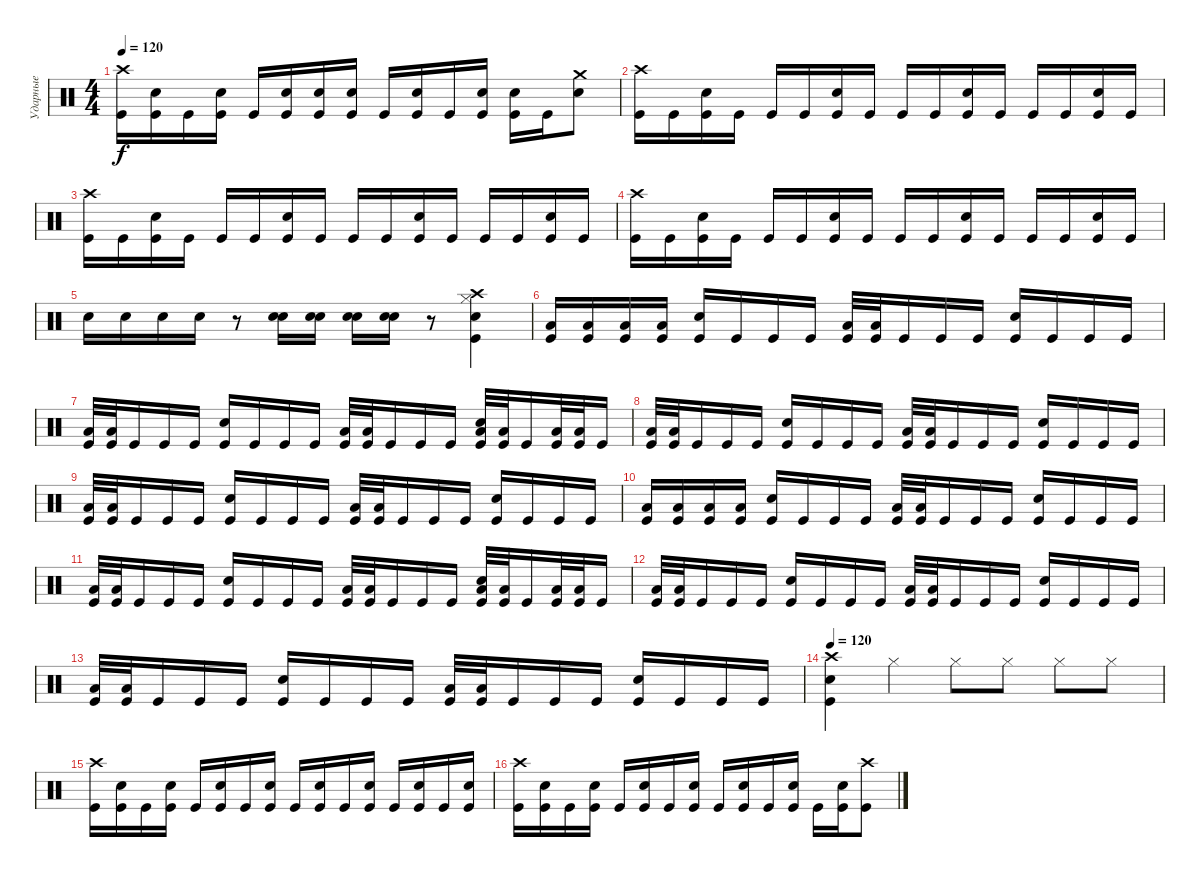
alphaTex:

\track ("Ударные" "Ударные") {instrument percussion}
\staff {score}
\articulation defaults
\ts (4 4)
\tempo 120
\clef neutral
\ks c
("Crash high (hit)" "Kick (hit)").16{dy f} ("Electric Snare (hit)" "Kick (hit)").16 "Kick (hit)".16 ("Electric Snare (hit)" "Kick (hit)").16 "Kick (hit)".16 ("Electric Snare (hit)" "Kick (hit)").16 ("Electric Snare (hit)" "Kick (hit)").16 ("Electric Snare (hit)" "Kick (hit)").16 "Kick (hit)".16 ("Electric Snare (hit)" "Kick (hit)").16 "Kick (hit)".16 ("Electric Snare (hit)" "Kick (hit)").16 ("Electric Snare (hit)" "Kick (hit)").16 "Kick (hit)".16 ("Crash medium (hit)" "Electric Snare (hit)").8 |
("Crash high (hit)" "Kick (hit)").16 "Kick (hit)".16 ("Electric Snare (hit)" "Kick (hit)").16 "Kick (hit)".16 "Kick (hit)".16 "Kick (hit)".16 ("Electric Snare (hit)" "Kick (hit)").16 "Kick (hit)".16 "Kick (hit)".16 "Kick (hit)".16 ("Electric Snare (hit)" "Kick (hit)").16 "Kick (hit)".16 "Kick (hit)".16 "Kick (hit)".16 ("Electric Snare (hit)" "Kick (hit)").16 "Kick (hit)".16 |
("Crash high (hit)" "Kick (hit)").16 "Kick (hit)".16 ("Electric Snare (hit)" "Kick (hit)").16 "Kick (hit)".16 "Kick (hit)".16 "Kick (hit)".16 ("Electric Snare (hit)" "Kick (hit)").16 "Kick (hit)".16 "Kick (hit)".16 "Kick (hit)".16 ("Electric Snare (hit)" "Kick (hit)").16 "Kick (hit)".16 "Kick (hit)".16 "Kick (hit)".16 ("Electric Snare (hit)" "Kick (hit)").16 "Kick (hit)".16 |
("Crash high (hit)" "Kick (hit)").16 "Kick (hit)".16 ("Electric Snare (hit)" "Kick (hit)").16 "Kick (hit)".16 "Kick (hit)".16 "Kick (hit)".16 ("Electric Snare (hit)" "Kick (hit)").16 "Kick (hit)".16 "Kick (hit)".16 "Kick (hit)".16 ("Electric Snare (hit)" "Kick (hit)").16 "Kick (hit)".16 "Kick (hit)".16 "Kick (hit)".16 ("Electric Snare (hit)" "Kick (hit)").16 "Kick (hit)".16 |
"Electric Snare (hit)".16 "Electric Snare (hit)".16 "Electric Snare (hit)".16 "Electric Snare (hit)".16 r.8 ("Electric Snare (hit)" "Electric Snare (hit)").16 ("Electric Snare (hit)" "Electric Snare (hit)").16 ("Electric Snare (hit)" "Electric Snare (hit)").16 ("Electric Snare (hit)" "Electric Snare (hit)").16 r.8 ("Crash high (hit)" "Hi-Hat (closed)" "Electric Snare (hit)" "Kick (hit)").4 |
("Low Tom (hit)" "Kick (hit)").16 ("Low Tom (hit)" "Kick (hit)").16 ("Low Tom (hit)" "Kick (hit)").16 ("Low Tom (hit)" "Kick (hit)").16 ("Electric Snare (hit)" "Kick (hit)").16 "Kick (hit)".16 "Kick (hit)".16 "Kick (hit)".16 ("Low Tom (hit)" "Kick (hit)").32 ("Low Tom (hit)" "Kick (hit)").32 "Kick (hit)".16 "Kick (hit)".16 "Kick (hit)".16 ("Electric Snare (hit)" "Kick (hit)").16 "Kick (hit)".16 "Kick (hit)".16 "Kick (hit)".16 |
("Low Tom (hit)" "Kick (hit)").32 ("Low Tom (hit)" "Kick (hit)").32 "Kick (hit)".16 "Kick (hit)".16 "Kick (hit)".16 ("Electric Snare (hit)" "Kick (hit)").16 "Kick (hit)".16 "Kick (hit)".16 "Kick (hit)".16 ("Low Tom (hit)" "Kick (hit)").32 ("Low Tom (hit)" "Kick (hit)").32 "Kick (hit)".16 "Kick (hit)".16 "Kick (hit)".16 ("Electric Snare (hit)" "Low Tom (hit)" "Kick (hit)").32 ("Low Tom (hit)" "Kick (hit)").32 "Kick (hit)".16 ("Low Tom (hit)" "Kick (hit)").32 ("Low Tom (hit)" "Kick (hit)").32 "Kick (hit)".16 |
("Low Tom (hit)" "Kick (hit)").32 ("Low Tom (hit)" "Kick (hit)").32 "Kick (hit)".16 "Kick (hit)".16 "Kick (hit)".16 ("Electric Snare (hit)" "Kick (hit)").16 "Kick (hit)".16 "Kick (hit)".16 "Kick (hit)".16 ("Low Tom (hit)" "Kick (hit)").32 ("Low Tom (hit)" "Kick (hit)").32 "Kick (hit)".16 "Kick (hit)".16 "Kick (hit)".16 ("Electric Snare (hit)" "Kick (hit)").16 "Kick (hit)".16 "Kick (hit)".16 "Kick (hit)".16 |
("Low Tom (hit)" "Kick (hit)").32 ("Low Tom (hit)" "Kick (hit)").32 "Kick (hit)".16 "Kick (hit)".16 "Kick (hit)".16 ("Electric Snare (hit)" "Kick (hit)").16 "Kick (hit)".16 "Kick (hit)".16 "Kick (hit)".16 ("Low Tom (hit)" "Kick (hit)").32 ("Low Tom (hit)" "Kick (hit)").32 "Kick (hit)".16 "Kick (hit)".16 "Kick (hit)".16 ("Electric Snare (hit)" "Kick (hit)").16 "Kick (hit)".16 "Kick (hit)".16 "Kick (hit)".16 |
("Low Tom (hit)" "Kick (hit)").16 ("Low Tom (hit)" "Kick (hit)").16 ("Low Tom (hit)" "Kick (hit)").16 ("Low Tom (hit)" "Kick (hit)").16 ("Electric Snare (hit)" "Kick (hit)").16 "Kick (hit)".16 "Kick (hit)".16 "Kick (hit)".16 ("Low Tom (hit)" "Kick (hit)").32 ("Low Tom (hit)" "Kick (hit)").32 "Kick (hit)".16 "Kick (hit)".16 "Kick (hit)".16 ("Electric Snare (hit)" "Kick (hit)").16 "Kick (hit)".16 "Kick (hit)".16 "Kick (hit)".16 |
("Low Tom (hit)" "Kick (hit)").32 ("Low Tom (hit)" "Kick (hit)").32 "Kick (hit)".16 "Kick (hit)".16 "Kick (hit)".16 ("Electric Snare (hit)" "Kick (hit)").16 "Kick (hit)".16 "Kick (hit)".16 "Kick (hit)".16 ("Low Tom (hit)" "Kick (hit)").32 ("Low Tom (hit)" "Kick (hit)").32 "Kick (hit)".16 "Kick (hit)".16 "Kick (hit)".16 ("Electric Snare (hit)" "Low Tom (hit)" "Kick (hit)").32 ("Low Tom (hit)" "Kick (hit)").32 "Kick (hit)".16 ("Low Tom (hit)" "Kick (hit)").32 ("Low Tom (hit)" "Kick (hit)").32 "Kick (hit)".16 |
("Low Tom (hit)" "Kick (hit)").32 ("Low Tom (hit)" "Kick (hit)").32 "Kick (hit)".16 "Kick (hit)".16 "Kick (hit)".16 ("Electric Snare (hit)" "Kick (hit)").16 "Kick (hit)".16 "Kick (hit)".16 "Kick (hit)".16 ("Low Tom (hit)" "Kick (hit)").32 ("Low Tom (hit)" "Kick (hit)").32 "Kick (hit)".16 "Kick (hit)".16 "Kick (hit)".16 ("Electric Snare (hit)" "Kick (hit)").16 "Kick (hit)".16 "Kick (hit)".16 "Kick (hit)".16 |
("Low Tom (hit)" "Kick (hit)").32 ("Low Tom (hit)" "Kick (hit)").32 "Kick (hit)".16 "Kick (hit)".16 "Kick (hit)".16 ("Electric Snare (hit)" "Kick (hit)").16 "Kick (hit)".16 "Kick (hit)".16 "Kick (hit)".16 ("Low Tom (hit)" "Kick (hit)").32 ("Low Tom (hit)" "Kick (hit)").32 "Kick (hit)".16 "Kick (hit)".16 "Kick (hit)".16 ("Electric Snare (hit)" "Kick (hit)").16 "Kick (hit)".16 "Kick (hit)".16 "Kick (hit)".16 |
\tempo 120
("Crash high (hit)" "Electric Snare (hit)" "Kick (hit)").4 "Hi-Hat (closed)".4 "Hi-Hat (closed)".8 "Hi-Hat (closed)".8 "Hi-Hat (closed)".8 "Hi-Hat (closed)".8 |
("Crash high (hit)" "Kick (hit)").16 ("Electric Snare (hit)" "Kick (hit)").16 "Kick (hit)".16 ("Electric Snare (hit)" "Kick (hit)").16 "Kick (hit)".16 ("Electric Snare (hit)" "Kick (hit)").16 "Kick (hit)".16 ("Electric Snare (hit)" "Kick (hit)").16 "Kick (hit)".16 ("Electric Snare (hit)" "Kick (hit)").16 "Kick (hit)".16 ("Electric Snare (hit)" "Kick (hit)").16 "Kick (hit)".16 ("Electric Snare (hit)" "Kick (hit)").16 "Kick (hit)".16 ("Electric Snare (hit)" "Kick (hit)").16 |
("Crash high (hit)" "Kick (hit)").16 ("Electric Snare (hit)" "Kick (hit)").16 "Kick (hit)".16 ("Electric Snare (hit)" "Kick (hit)").16 "Kick (hit)".16 ("Electric Snare (hit)" "Kick (hit)").16 "Kick (hit)".16 ("Electric Snare (hit)" "Kick (hit)").16 "Kick (hit)".16 ("Electric Snare (hit)" "Kick (hit)").16 "Kick (hit)".16 ("Electric Snare (hit)" "Kick (hit)").16 "Kick (hit)".16 ("Electric Snare (hit)" "Kick (hit)").16 ("Crash high (hit)" "Kick (hit)").8
